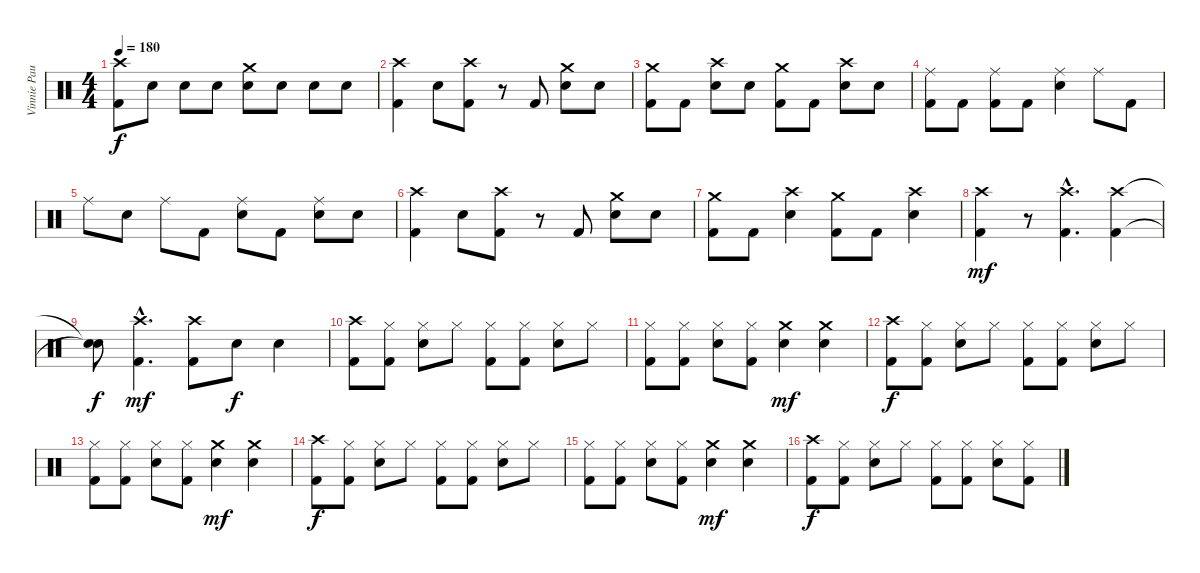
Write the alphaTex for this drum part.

\track ("Vinnie Paul" "Vinnie Pau") {instrument percussion}
\staff {score}
\articulation defaults
\ts (4 4)
\tempo 180
\clef neutral
\ks c
("Crash high (hit)" "Kick (hit) 2").8{dy f} "Electric Snare (hit)".8 "Electric Snare (hit)".8 "Electric Snare (hit)".8 ("Crash medium (hit)" "Electric Snare (hit)").8 "Electric Snare (hit)".8 "Electric Snare (hit)".8 "Electric Snare (hit)".8 |
("Crash high (hit)" "Kick (hit) 2").4 "Electric Snare (hit)".8 ("Crash high (hit)" "Kick (hit) 2").8 r.8 "Kick (hit) 2".8 ("Crash medium (hit)" "Electric Snare (hit)").8 "Electric Snare (hit)".8 |
("Crash medium (hit)" "Kick (hit) 2").8 "Kick (hit) 2".8 ("Crash high (hit)" "Electric Snare (hit)").8 "Electric Snare (hit)".8 ("Crash medium (hit)" "Kick (hit) 2").8 "Kick (hit) 2".8 ("Crash high (hit)" "Electric Snare (hit)").8 "Electric Snare (hit)".8 |
("Ride (middle)" "Kick (hit) 2").8 "Kick (hit) 2".8 ("Ride (middle)" "Kick (hit) 2").8 "Kick (hit) 2".8 ("Ride (middle)" "Electric Snare (hit)").4 "Ride (middle)".8 "Kick (hit) 2".8 |
"Ride (middle)".8 "Electric Snare (hit)".8 "Ride (middle)".8 "Kick (hit) 2".8 ("Ride (middle)" "Electric Snare (hit)").8 "Kick (hit) 2".8 ("Ride (middle)" "Electric Snare (hit)").8 "Electric Snare (hit)".8 |
("Crash high (hit)" "Kick (hit) 2").4 "Electric Snare (hit)".8 ("Crash high (hit)" "Kick (hit) 2").8 r.8 "Kick (hit) 2".8 ("Crash medium (hit)" "Electric Snare (hit)").8 "Electric Snare (hit)".8 |
("Crash medium (hit)" "Kick (hit) 2").8 "Kick (hit) 2".8 ("Crash high (hit)" "Electric Snare (hit)").4 ("Crash medium (hit)" "Kick (hit) 2").8 "Kick (hit) 2".8 ("Crash high (hit)" "Electric Snare (hit)").4 |
("Crash high (hit)" "Kick (hit) 2").4{dy mf} r.8 ("Crash high (hit)"{hac} "Kick (hit) 2"{hac}).4{d} ("Crash high (hit)" "Kick (hit) 2").4 |
("Snare (hit)"{t} "Snare (hit)"{t}).8{dy f} ("Crash high (hit)"{hac} "Kick (hit) 2"{hac}).4{d dy mf} ("Crash high (hit)" "Kick (hit) 2").8 "Electric Snare (hit)".8{dy f} "Electric Snare (hit)".4 |
("Crash high (hit)" "Kick (hit) 2").8 ("Hi-Hat (closed)" "Kick (hit) 2").8 ("Hi-Hat (closed)" "Electric Snare (hit)").8 "Hi-Hat (closed)".8 ("Hi-Hat (closed)" "Kick (hit) 2").8 ("Hi-Hat (closed)" "Kick (hit) 2").8 ("Hi-Hat (closed)" "Electric Snare (hit)").8 "Hi-Hat (closed)".8 |
("Hi-Hat (closed)" "Kick (hit) 2").8 ("Hi-Hat (closed)" "Kick (hit) 2").8 ("Hi-Hat (closed)" "Electric Snare (hit)").8 ("Hi-Hat (closed)" "Kick (hit) 2").8 ("Crash medium (hit)" "Electric Snare (hit)").4{dy mf} ("Crash medium (hit)" "Electric Snare (hit)").4 |
("Crash high (hit)" "Kick (hit) 2").8{dy f} ("Hi-Hat (closed)" "Kick (hit) 2").8 ("Hi-Hat (closed)" "Electric Snare (hit)").8 "Hi-Hat (closed)".8 ("Hi-Hat (closed)" "Kick (hit) 2").8 ("Hi-Hat (closed)" "Kick (hit) 2").8 ("Hi-Hat (closed)" "Electric Snare (hit)").8 "Hi-Hat (closed)".8 |
("Hi-Hat (closed)" "Kick (hit) 2").8 ("Hi-Hat (closed)" "Kick (hit) 2").8 ("Hi-Hat (closed)" "Electric Snare (hit)").8 ("Hi-Hat (closed)" "Kick (hit) 2").8 ("Crash medium (hit)" "Electric Snare (hit)").4{dy mf} ("Crash medium (hit)" "Electric Snare (hit)").4 |
("Crash high (hit)" "Kick (hit) 2").8{dy f} ("Hi-Hat (closed)" "Kick (hit) 2").8 ("Hi-Hat (closed)" "Electric Snare (hit)").8 "Hi-Hat (closed)".8 ("Hi-Hat (closed)" "Kick (hit) 2").8 ("Hi-Hat (closed)" "Kick (hit) 2").8 ("Hi-Hat (closed)" "Electric Snare (hit)").8 "Hi-Hat (closed)".8 |
("Hi-Hat (closed)" "Kick (hit) 2").8 ("Hi-Hat (closed)" "Kick (hit) 2").8 ("Hi-Hat (closed)" "Electric Snare (hit)").8 ("Hi-Hat (closed)" "Kick (hit) 2").8 ("Crash medium (hit)" "Electric Snare (hit)").4{dy mf} ("Crash medium (hit)" "Electric Snare (hit)").4 |
("Crash high (hit)" "Kick (hit) 2").8{dy f} ("Hi-Hat (closed)" "Kick (hit) 2").8 ("Hi-Hat (closed)" "Electric Snare (hit)").8 "Hi-Hat (closed)".8 ("Hi-Hat (closed)" "Kick (hit) 2").8 ("Hi-Hat (closed)" "Kick (hit) 2").8 ("Hi-Hat (closed)" "Electric Snare (hit)").8 ("Hi-Hat (closed)" "Kick (hit) 2").8
